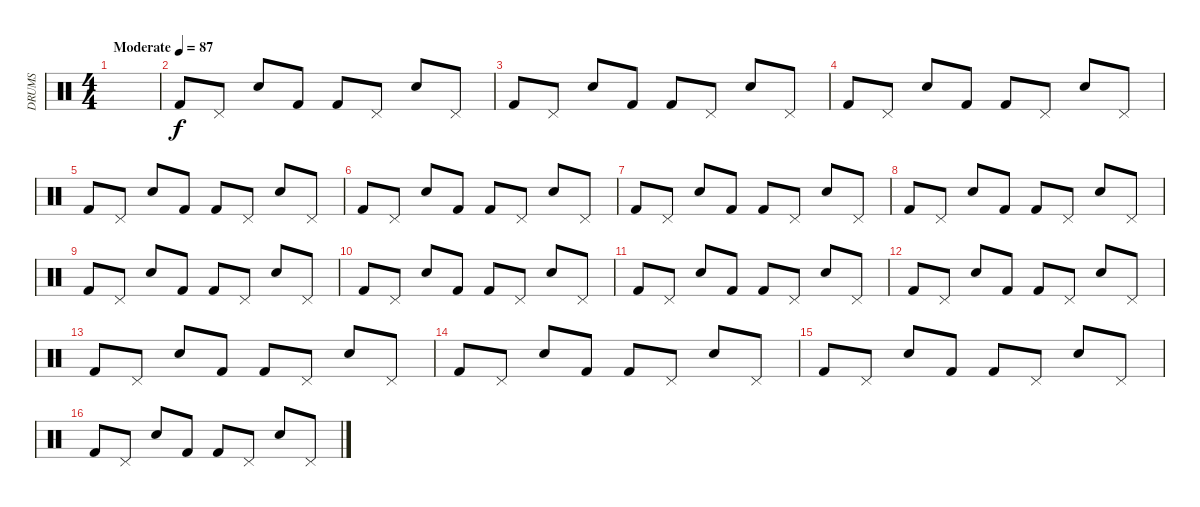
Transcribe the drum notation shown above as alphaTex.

\track ("DRUMS" "DRUMS") {instrument percussion}
\staff {score}
\articulation defaults
\ts (4 4)
\tempo (87 "Moderate")
\clef neutral
\ks c
|
"Kick (hit) 2".8 "Pedal Hi-Hat (hit)".8 "Electric Snare (hit)".8 "Kick (hit) 2".8 "Kick (hit) 2".8 "Pedal Hi-Hat (hit)".8 "Electric Snare (hit)".8 "Pedal Hi-Hat (hit)".8 |
"Kick (hit) 2".8 "Pedal Hi-Hat (hit)".8 "Electric Snare (hit)".8 "Kick (hit) 2".8 "Kick (hit) 2".8 "Pedal Hi-Hat (hit)".8 "Electric Snare (hit)".8 "Pedal Hi-Hat (hit)".8 |
"Kick (hit) 2".8 "Pedal Hi-Hat (hit)".8 "Electric Snare (hit)".8 "Kick (hit) 2".8 "Kick (hit) 2".8 "Pedal Hi-Hat (hit)".8 "Electric Snare (hit)".8 "Pedal Hi-Hat (hit)".8 |
"Kick (hit) 2".8 "Pedal Hi-Hat (hit)".8 "Electric Snare (hit)".8 "Kick (hit) 2".8 "Kick (hit) 2".8 "Pedal Hi-Hat (hit)".8 "Electric Snare (hit)".8 "Pedal Hi-Hat (hit)".8 |
"Kick (hit) 2".8 "Pedal Hi-Hat (hit)".8 "Electric Snare (hit)".8 "Kick (hit) 2".8 "Kick (hit) 2".8 "Pedal Hi-Hat (hit)".8 "Electric Snare (hit)".8 "Pedal Hi-Hat (hit)".8 |
"Kick (hit) 2".8 "Pedal Hi-Hat (hit)".8 "Electric Snare (hit)".8 "Kick (hit) 2".8 "Kick (hit) 2".8 "Pedal Hi-Hat (hit)".8 "Electric Snare (hit)".8 "Pedal Hi-Hat (hit)".8 |
"Kick (hit) 2".8 "Pedal Hi-Hat (hit)".8 "Electric Snare (hit)".8 "Kick (hit) 2".8 "Kick (hit) 2".8 "Pedal Hi-Hat (hit)".8 "Electric Snare (hit)".8 "Pedal Hi-Hat (hit)".8 |
"Kick (hit) 2".8 "Pedal Hi-Hat (hit)".8 "Electric Snare (hit)".8 "Kick (hit) 2".8 "Kick (hit) 2".8 "Pedal Hi-Hat (hit)".8 "Electric Snare (hit)".8 "Pedal Hi-Hat (hit)".8 |
"Kick (hit) 2".8 "Pedal Hi-Hat (hit)".8 "Electric Snare (hit)".8 "Kick (hit) 2".8 "Kick (hit) 2".8 "Pedal Hi-Hat (hit)".8 "Electric Snare (hit)".8 "Pedal Hi-Hat (hit)".8 |
"Kick (hit) 2".8 "Pedal Hi-Hat (hit)".8 "Electric Snare (hit)".8 "Kick (hit) 2".8 "Kick (hit) 2".8 "Pedal Hi-Hat (hit)".8 "Electric Snare (hit)".8 "Pedal Hi-Hat (hit)".8 |
"Kick (hit) 2".8 "Pedal Hi-Hat (hit)".8 "Electric Snare (hit)".8 "Kick (hit) 2".8 "Kick (hit) 2".8 "Pedal Hi-Hat (hit)".8 "Electric Snare (hit)".8 "Pedal Hi-Hat (hit)".8 |
"Kick (hit) 2".8 "Pedal Hi-Hat (hit)".8 "Electric Snare (hit)".8 "Kick (hit) 2".8 "Kick (hit) 2".8 "Pedal Hi-Hat (hit)".8 "Electric Snare (hit)".8 "Pedal Hi-Hat (hit)".8 |
"Kick (hit) 2".8 "Pedal Hi-Hat (hit)".8 "Electric Snare (hit)".8 "Kick (hit) 2".8 "Kick (hit) 2".8 "Pedal Hi-Hat (hit)".8 "Electric Snare (hit)".8 "Pedal Hi-Hat (hit)".8 |
"Kick (hit) 2".8 "Pedal Hi-Hat (hit)".8 "Electric Snare (hit)".8 "Kick (hit) 2".8 "Kick (hit) 2".8 "Pedal Hi-Hat (hit)".8 "Electric Snare (hit)".8 "Pedal Hi-Hat (hit)".8 |
"Kick (hit) 2".8 "Pedal Hi-Hat (hit)".8 "Electric Snare (hit)".8 "Kick (hit) 2".8 "Kick (hit) 2".8 "Pedal Hi-Hat (hit)".8 "Electric Snare (hit)".8 "Pedal Hi-Hat (hit)".8
